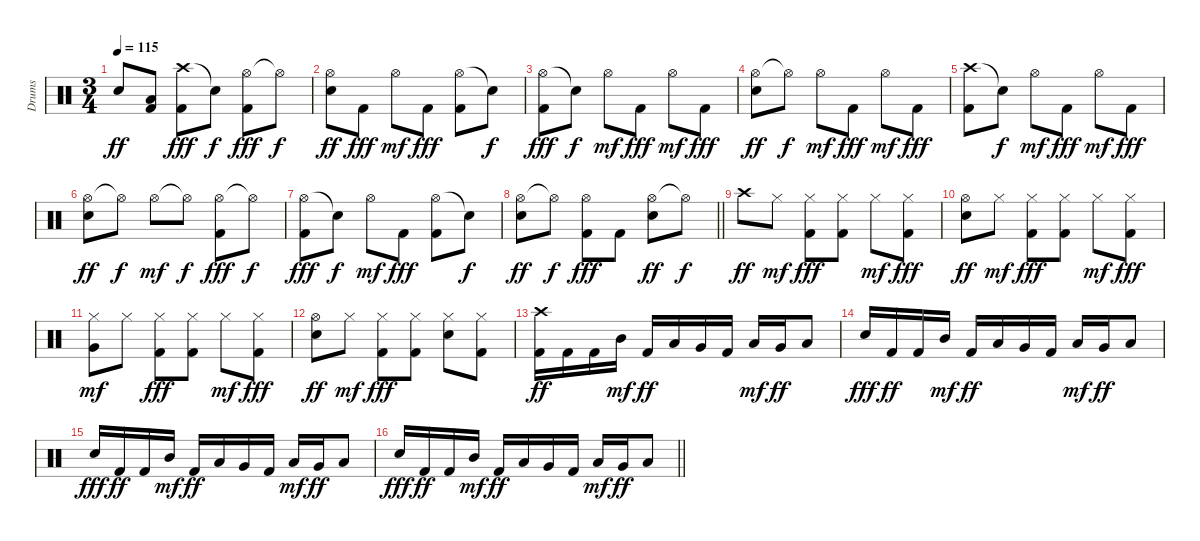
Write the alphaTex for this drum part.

\track ("Drums" "Drums") {instrument percussion}
\staff {score}
\articulation defaults
\ts (3 4)
\tempo 115
\clef neutral
\ks c "Snare (hit) 2".8{dy ff}
("Low Tom (hit)" "Kick (hit) 2").8 ("Crash high (hit)" "Kick (hit) 2").8{dy fff} "Snare (hit)"{t}.8{dy f} ("Hi-Hat (open)" "Kick (hit) 2").8{dy fff} "Hi-Hat (open)"{t}.8{dy f} |
("Hi-Hat (open)" "Snare (hit) 2").8{dy ff} "Kick (hit) 2".8{dy fff} "Hi-Hat (open)".8{dy mf} "Kick (hit) 2".8{dy fff} ("Hi-Hat (open)" "Kick (hit) 2").8 "Snare (hit)"{t}.8{dy f} |
("Hi-Hat (open)" "Kick (hit) 2").8{dy fff} "Snare (hit)"{t}.8{dy f} "Hi-Hat (open)".8{dy mf} "Kick (hit) 2".8{dy fff} "Hi-Hat (open)".8{dy mf} "Kick (hit) 2".8{dy fff} |
("Hi-Hat (open)" "Snare (hit) 2").8{dy ff} "Hi-Hat (open)"{t}.8{dy f} "Hi-Hat (open)".8{dy mf} "Kick (hit) 2".8{dy fff} "Hi-Hat (open)".8{dy mf} "Kick (hit) 2".8{dy fff} |
("Crash high (hit)" "Kick (hit) 2").8 "Snare (hit)"{t}.8{dy f} "Hi-Hat (open)".8{dy mf} "Kick (hit) 2".8{dy fff} "Hi-Hat (open)".8{dy mf} "Kick (hit) 2".8{dy fff} |
("Hi-Hat (open)" "Snare (hit) 2").8{dy ff} "Hi-Hat (open)"{t}.8{dy f} "Hi-Hat (open)".8{dy mf} "Hi-Hat (open)"{t}.8{dy f} ("Hi-Hat (open)" "Kick (hit) 2").8{dy fff} "Hi-Hat (open)"{t}.8{dy f} |
("Hi-Hat (open)" "Kick (hit) 2").8{dy fff} "Snare (hit)"{t}.8{dy f} "Hi-Hat (open)".8{dy mf} "Kick (hit) 2".8{dy fff} ("Hi-Hat (open)" "Kick (hit) 2").8 "Snare (hit)"{t}.8{dy f} |
\barLineRight lightlight
("Hi-Hat (open)" "Snare (hit) 2").8{dy ff} "Hi-Hat (open)"{t}.8{dy f} ("Hi-Hat (open)" "Kick (hit) 2").8{dy fff} "Kick (hit) 2".8 ("Hi-Hat (open)" "Snare (hit) 2").8{dy ff} "Hi-Hat (open)"{t}.8{dy f} |
\section ("" "")
"Crash high (hit)".8{dy ff} "Hi-Hat (closed)".8{dy mf} ("Hi-Hat (closed)" "Kick (hit) 2").8{dy fff} ("Hi-Hat (closed)" "Kick (hit) 2").8 "Hi-Hat (closed)".8{dy mf} ("Hi-Hat (closed)" "Kick (hit) 2").8{dy fff} |
("Hi-Hat (open)" "Snare (hit) 2").8{dy ff} "Hi-Hat (closed)".8{dy mf} ("Hi-Hat (closed)" "Kick (hit) 2").8{dy fff} ("Hi-Hat (closed)" "Kick (hit) 2").8 "Hi-Hat (closed)".8{dy mf} ("Hi-Hat (closed)" "Kick (hit) 2").8{dy fff} |
("Hi-Hat (closed)" "Very Low Tom (hit)").8{dy mf} "Hi-Hat (closed)".8 ("Hi-Hat (closed)" "Kick (hit) 2").8{dy fff} ("Hi-Hat (closed)" "Kick (hit) 2").8 "Hi-Hat (closed)".8{dy mf} ("Hi-Hat (closed)" "Kick (hit) 2").8{dy fff} |
("Hi-Hat (open)" "Snare (hit) 2").8{dy ff} "Hi-Hat (closed)".8{dy mf} ("Hi-Hat (closed)" "Kick (hit) 2").8{dy fff} ("Hi-Hat (closed)" "Kick (hit) 2").8 ("Hi-Hat (closed)" "Snare (hit) 2").8 ("Hi-Hat (closed)" "Kick (hit) 2").8 |
("Crash high (hit)" "Kick (hit) 2").16{dy ff} "Kick (hit) 2".16 "Kick (hit) 2".16 "Mid Tom (hit)".16{dy mf} "Kick (hit) 2".16{dy ff} "Low Tom (hit)".16 "Very Low Tom (hit)".16 "Kick (hit) 2".16 "Low Tom (hit)".16{dy mf} "Very Low Tom (hit)".16{dy ff} "Low Floor Tom (hit)".8 |
"Snare (hit) 2".16{dy fff} "Kick (hit) 2".16{dy ff} "Kick (hit) 2".16 "Mid Tom (hit)".16{dy mf} "Kick (hit) 2".16{dy ff} "Low Tom (hit)".16 "Very Low Tom (hit)".16 "Kick (hit) 2".16 "Low Tom (hit)".16{dy mf} "Very Low Tom (hit)".16{dy ff} "Low Floor Tom (hit)".8 |
"Snare (hit) 2".16{dy fff} "Kick (hit) 2".16{dy ff} "Kick (hit) 2".16 "Mid Tom (hit)".16{dy mf} "Kick (hit) 2".16{dy ff} "Low Tom (hit)".16 "Very Low Tom (hit)".16 "Kick (hit) 2".16 "Low Tom (hit)".16{dy mf} "Very Low Tom (hit)".16{dy ff} "Low Floor Tom (hit)".8 |
\barLineRight lightlight "Snare (hit) 2".16{dy fff} "Kick (hit) 2".16{dy ff} "Kick (hit) 2".16 "Mid Tom (hit)".16{dy mf} "Kick (hit) 2".16{dy ff} "Low Tom (hit)".16 "Very Low Tom (hit)".16 "Kick (hit) 2".16 "Low Tom (hit)".16{dy mf} "Very Low Tom (hit)".16{dy ff} "Low Floor Tom (hit)".8
